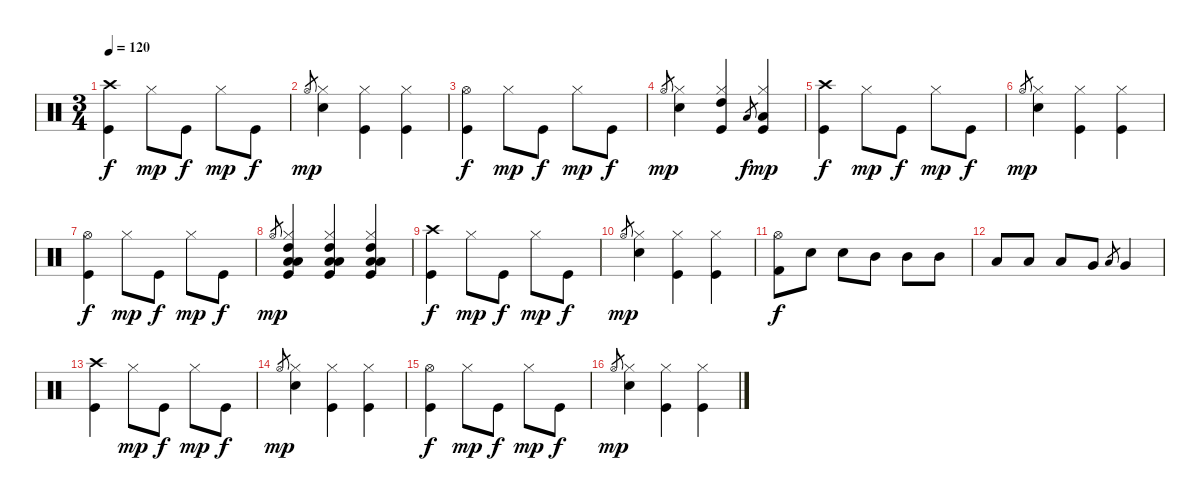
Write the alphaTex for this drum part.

\track "" {instrument percussion}
\staff {score}
\articulation defaults
\ts (3 4)
\tempo 120
\clef neutral
\ks c
("Crash high (hit)" "Kick (hit)").4{dy f} "Hi-Hat (closed)".8{dy mp} "Kick (hit)".8{dy f} "Hi-Hat (closed)".8{dy mp} "Kick (hit)".8{dy f} |
"Hi-Hat (open)".8{gr dy mp} ("Hi-Hat (closed)" "Electric Snare (hit)").4 ("Hi-Hat (closed)" "Kick (hit)").4 ("Hi-Hat (closed)" "Kick (hit)").4 |
("Hi-Hat (open)" "Kick (hit)").4{dy f} "Hi-Hat (closed)".8{dy mp} "Kick (hit)".8{dy f} "Hi-Hat (closed)".8{dy mp} "Kick (hit)".8{dy f} |
"Hi-Hat (open)".8{gr dy mp} ("Hi-Hat (closed)" "Electric Snare (hit)").4 ("Hi-Hat (closed)" "High Tom (hit)" "Kick (hit)").4 "Low Tom (hit)".8{gr dy f} ("Hi-Hat (closed)" "Low Tom (hit)" "Kick (hit)").4{dy mp} |
("Crash high (hit)" "Kick (hit)").4{dy f} "Hi-Hat (closed)".8{dy mp} "Kick (hit)".8{dy f} "Hi-Hat (closed)".8{dy mp} "Kick (hit)".8{dy f} |
"Hi-Hat (open)".8{gr dy mp} ("Hi-Hat (closed)" "Electric Snare (hit)").4 ("Hi-Hat (closed)" "Kick (hit)").4 ("Hi-Hat (closed)" "Kick (hit)").4 |
("Hi-Hat (open)" "Kick (hit)").4{dy f} "Hi-Hat (closed)".8{dy mp} "Kick (hit)".8{dy f} "Hi-Hat (closed)".8{dy mp} "Kick (hit)".8{dy f} |
"Hi-Hat (open)".8{gr dy mp} ("Hi-Hat (closed)" "High Tom (hit)" "Low Floor Tom (hit)" "Low Tom (hit)" "Kick (hit)").4 ("Hi-Hat (closed)" "High Tom (hit)" "Low Floor Tom (hit)" "Low Tom (hit)" "Kick (hit)").4 ("Hi-Hat (closed)" "High Tom (hit)" "Low Floor Tom (hit)" "Low Tom (hit)" "Kick (hit)").4 |
("Crash high (hit)" "Kick (hit)").4{dy f} "Hi-Hat (closed)".8{dy mp} "Kick (hit)".8{dy f} "Hi-Hat (closed)".8{dy mp} "Kick (hit)".8{dy f} |
"Hi-Hat (open)".8{gr dy mp} ("Hi-Hat (closed)" "Electric Snare (hit)").4 ("Hi-Hat (closed)" "Kick (hit)").4 ("Hi-Hat (closed)" "Kick (hit)").4 |
("Hi-Hat (open)" "Kick (hit) 2").8{dy f} "Electric Snare (hit)".8 "Electric Snare (hit)".8 "Mid Tom (hit)".8 "Mid Tom (hit)".8 "Mid Tom (hit)".8 |
"Low Tom (hit)".8 "Low Tom (hit)".8 "Low Tom (hit)".8 "Very Low Tom (hit)".8 "Low Floor Tom (hit)".8{gr} "Very Low Tom (hit)".4 |
("Crash high (hit)" "Kick (hit)").4 "Hi-Hat (closed)".8{dy mp} "Kick (hit)".8{dy f} "Hi-Hat (closed)".8{dy mp} "Kick (hit)".8{dy f} |
"Hi-Hat (open)".8{gr dy mp} ("Hi-Hat (closed)" "Electric Snare (hit)").4 ("Hi-Hat (closed)" "Kick (hit)").4 ("Hi-Hat (closed)" "Kick (hit)").4 |
("Hi-Hat (open)" "Kick (hit)").4{dy f} "Hi-Hat (closed)".8{dy mp} "Kick (hit)".8{dy f} "Hi-Hat (closed)".8{dy mp} "Kick (hit)".8{dy f} |
"Hi-Hat (open)".8{gr dy mp} ("Hi-Hat (closed)" "Electric Snare (hit)").4 ("Hi-Hat (closed)" "Kick (hit)").4 ("Hi-Hat (closed)" "Kick (hit)").4
